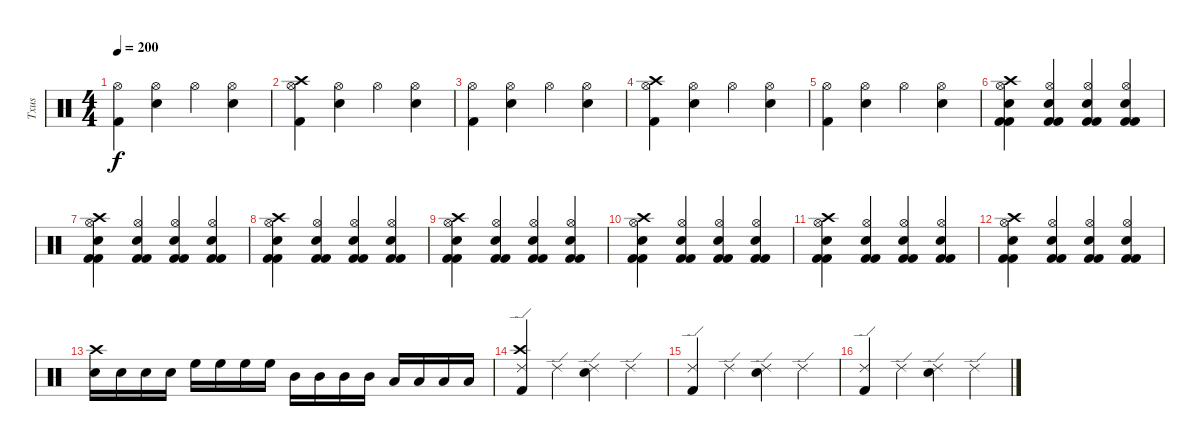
\track ("Txus" "Txus") {instrument percussion}
\staff
\articulation defaults
\ts (4 4)
\tempo 200
\clef neutral
\ks c
("Kick (hit) 2" "Hi-Hat (open)").4{dy f} ("Electric Snare (hit)" "Hi-Hat (open)").4 "Hi-Hat (open)".4 ("Electric Snare (hit)" "Hi-Hat (open)").4 |
("Kick (hit) 2" "Crash high (hit)" "Hi-Hat (open)").4 ("Electric Snare (hit)" "Hi-Hat (open)").4 "Hi-Hat (open)".4 ("Electric Snare (hit)" "Hi-Hat (open)").4 |
("Kick (hit) 2" "Hi-Hat (open)").4 ("Electric Snare (hit)" "Hi-Hat (open)").4 "Hi-Hat (open)".4 ("Electric Snare (hit)" "Hi-Hat (open)").4 |
("Kick (hit) 2" "Crash high (hit)" "Hi-Hat (open)").4 ("Electric Snare (hit)" "Hi-Hat (open)").4 "Hi-Hat (open)".4 ("Electric Snare (hit)" "Hi-Hat (open)").4 |
("Kick (hit) 2" "Hi-Hat (open)").4 ("Electric Snare (hit)" "Hi-Hat (open)").4 "Hi-Hat (open)".4 ("Electric Snare (hit)" "Hi-Hat (open)").4 |
("Electric Snare (hit)" "Kick (hit) 2" "Kick (hit) 2" "Hi-Hat (open)" "Crash high (hit)").4 ("Electric Snare (hit)" "Kick (hit) 2" "Kick (hit) 2" "Hi-Hat (open)").4 ("Electric Snare (hit)" "Kick (hit) 2" "Kick (hit) 2" "Hi-Hat (open)").4 ("Electric Snare (hit)" "Kick (hit) 2" "Kick (hit) 2" "Hi-Hat (open)").4 |
("Electric Snare (hit)" "Kick (hit) 2" "Kick (hit) 2" "Hi-Hat (open)" "Crash high (hit)").4 ("Electric Snare (hit)" "Kick (hit) 2" "Kick (hit) 2" "Hi-Hat (open)").4 ("Electric Snare (hit)" "Kick (hit) 2" "Kick (hit) 2" "Hi-Hat (open)").4 ("Electric Snare (hit)" "Kick (hit) 2" "Kick (hit) 2" "Hi-Hat (open)").4 |
("Electric Snare (hit)" "Kick (hit) 2" "Kick (hit) 2" "Hi-Hat (open)" "Crash high (hit)").4 ("Electric Snare (hit)" "Kick (hit) 2" "Kick (hit) 2" "Hi-Hat (open)").4 ("Electric Snare (hit)" "Kick (hit) 2" "Kick (hit) 2" "Hi-Hat (open)").4 ("Electric Snare (hit)" "Kick (hit) 2" "Kick (hit) 2" "Hi-Hat (open)").4 |
("Electric Snare (hit)" "Kick (hit) 2" "Kick (hit) 2" "Hi-Hat (open)" "Crash high (hit)").4 ("Electric Snare (hit)" "Kick (hit) 2" "Kick (hit) 2" "Hi-Hat (open)").4 ("Electric Snare (hit)" "Kick (hit) 2" "Kick (hit) 2" "Hi-Hat (open)").4 ("Electric Snare (hit)" "Kick (hit) 2" "Kick (hit) 2" "Hi-Hat (open)").4 |
("Electric Snare (hit)" "Kick (hit) 2" "Kick (hit) 2" "Hi-Hat (open)" "Crash high (hit)").4 ("Electric Snare (hit)" "Kick (hit) 2" "Kick (hit) 2" "Hi-Hat (open)").4 ("Electric Snare (hit)" "Kick (hit) 2" "Kick (hit) 2" "Hi-Hat (open)").4 ("Electric Snare (hit)" "Kick (hit) 2" "Kick (hit) 2" "Hi-Hat (open)").4 |
("Electric Snare (hit)" "Kick (hit) 2" "Kick (hit) 2" "Hi-Hat (open)" "Crash high (hit)").4 ("Electric Snare (hit)" "Kick (hit) 2" "Kick (hit) 2" "Hi-Hat (open)").4 ("Electric Snare (hit)" "Kick (hit) 2" "Kick (hit) 2" "Hi-Hat (open)").4 ("Electric Snare (hit)" "Kick (hit) 2" "Kick (hit) 2" "Hi-Hat (open)").4 |
("Electric Snare (hit)" "Kick (hit) 2" "Kick (hit) 2" "Hi-Hat (open)" "Crash high (hit)").4 ("Electric Snare (hit)" "Kick (hit) 2" "Kick (hit) 2" "Hi-Hat (open)").4 ("Electric Snare (hit)" "Kick (hit) 2" "Kick (hit) 2" "Hi-Hat (open)").4 ("Electric Snare (hit)" "Kick (hit) 2" "Kick (hit) 2" "Hi-Hat (open)").4 |
("Electric Snare (hit)" "Crash high (hit)").16 "Electric Snare (hit)".16 "Electric Snare (hit)".16 "Electric Snare (hit)".16 "High Floor Tom (hit)".16 "High Floor Tom (hit)".16 "High Floor Tom (hit)".16 "High Floor Tom (hit)".16 "Mid Tom (hit)".16 "Mid Tom (hit)".16 "Mid Tom (hit)".16 "Mid Tom (hit)".16 "Low Tom (hit)".16 "Low Tom (hit)".16 "Low Tom (hit)".16 "Low Tom (hit)".16 |
("Ride (edge) 2" "Kick (hit) 2" "Crash high (hit)").4 "Ride (edge) 2".4 ("Ride (edge) 2" "Electric Snare (hit)").4 "Ride (edge) 2".4 |
("Ride (edge) 2" "Kick (hit) 2").4 "Ride (edge) 2".4 ("Ride (edge) 2" "Electric Snare (hit)").4 "Ride (edge) 2".4 |
("Ride (edge) 2" "Kick (hit) 2").4 "Ride (edge) 2".4 ("Ride (edge) 2" "Electric Snare (hit)").4 "Ride (edge) 2".4
